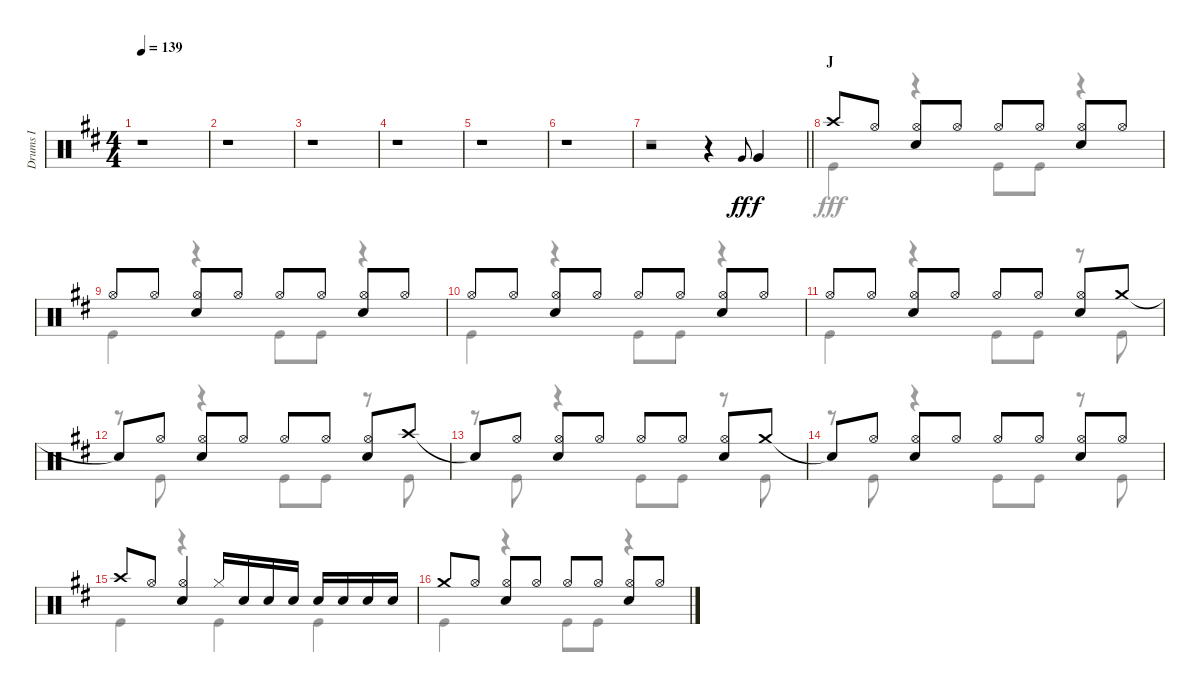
\track ("Drums I" "Drums I") {instrument percussion}
\staff {score}
\articulation defaults
\voice
\ts (4 4)
\tempo 139
\clef neutral
\ks d
r.1{dy f} |
r.1 |
r.1 |
r.1 |
r.1 |
r.1 |
\barLineRight lightlight
r.2 r.4 "Very Low Tom (hit)".8{gr onbeat dy ff} "Very Low Tom (hit)".4{dy f} |
\section ("" "J")
"Crash high (hit)".8 "Hi-Hat (open)".8 ("Hi-Hat (open)" "Snare (hit) 2").8 "Hi-Hat (open)".8 "Hi-Hat (open)".8 "Hi-Hat (open)".8 ("Hi-Hat (open)" "Snare (hit) 2").8 "Hi-Hat (open)".8 |
"Hi-Hat (open)".8 "Hi-Hat (open)".8 ("Hi-Hat (open)" "Snare (hit) 2").8 "Hi-Hat (open)".8 "Hi-Hat (open)".8 "Hi-Hat (open)".8 ("Hi-Hat (open)" "Snare (hit) 2").8 "Hi-Hat (open)".8 |
"Hi-Hat (open)".8 "Hi-Hat (open)".8 ("Hi-Hat (open)" "Snare (hit) 2").8 "Hi-Hat (open)".8 "Hi-Hat (open)".8 "Hi-Hat (open)".8 ("Hi-Hat (open)" "Snare (hit) 2").8 "Hi-Hat (open)".8 |
"Hi-Hat (open)".8 "Hi-Hat (open)".8 ("Hi-Hat (open)" "Snare (hit) 2").8 "Hi-Hat (open)".8 "Hi-Hat (open)".8 "Hi-Hat (open)".8 ("Hi-Hat (open)" "Snare (hit) 2").8 "Crash medium (hit)".8 |
"Snare (hit)"{t}.8 "Hi-Hat (open)".8 ("Hi-Hat (open)" "Snare (hit) 2").8 "Hi-Hat (open)".8 "Hi-Hat (open)".8 "Hi-Hat (open)".8 ("Hi-Hat (open)" "Snare (hit) 2").8 "Crash high (hit)".8 |
"Snare (hit)"{t}.8 "Hi-Hat (open)".8 ("Hi-Hat (open)" "Snare (hit) 2").8 "Hi-Hat (open)".8 "Hi-Hat (open)".8 "Hi-Hat (open)".8 ("Hi-Hat (open)" "Snare (hit) 2").8 "Crash medium (hit)".8 |
"Snare (hit)"{t}.8 "Hi-Hat (open)".8 ("Hi-Hat (open)" "Snare (hit) 2").8 "Hi-Hat (open)".8 "Hi-Hat (open)".8 "Hi-Hat (open)".8 ("Hi-Hat (open)" "Snare (hit) 2").8 "Hi-Hat (open)".8 |
"Crash high (hit)".8 "Hi-Hat (open)".8 ("Hi-Hat (open)" "Snare (hit) 2").4 "Hi-Hat (closed)".16 "Snare (hit) 2".16 "Snare (hit) 2".16 "Snare (hit) 2".16 "Snare (hit) 2".16 "Snare (hit) 2".16 "Snare (hit) 2".16 "Snare (hit) 2".16 |
"Crash medium (hit)".8 "Hi-Hat (open)".8 ("Hi-Hat (open)" "Snare (hit) 2").8 "Hi-Hat (open)".8 "Hi-Hat (open)".8 "Hi-Hat (open)".8 ("Hi-Hat (open)" "Snare (hit) 2").8 "Hi-Hat (open)".8
\voice
\clef neutral
\ottava regular
\simile none
\ks d
r.1{dy fff} |
r.1 |
r.1 |
r.1 |
r.1 |
r.1 |
\barLineRight lightlight
r.1 |
"Kick (hit)".4 r.4 "Kick (hit)".8 "Kick (hit)".8 r.4 |
"Kick (hit)".4 r.4 "Kick (hit)".8 "Kick (hit)".8 r.4 |
"Kick (hit)".4 r.4 "Kick (hit)".8 "Kick (hit)".8 r.4 |
"Kick (hit)".4 r.4 "Kick (hit)".8 "Kick (hit)".8 r.8 "Kick (hit)".8 |
r.8 "Kick (hit)".8 r.4 "Kick (hit)".8 "Kick (hit)".8 r.8 "Kick (hit)".8 |
r.8 "Kick (hit)".8 r.4 "Kick (hit)".8 "Kick (hit)".8 r.8 "Kick (hit)".8 |
r.8 "Kick (hit)".8 r.4 "Kick (hit)".8 "Kick (hit)".8 r.8 "Kick (hit)".8 |
"Kick (hit)".4 r.4 "Kick (hit)".4 "Kick (hit)".4 |
"Kick (hit)".4 r.4 "Kick (hit)".8 "Kick (hit)".8 r.4
